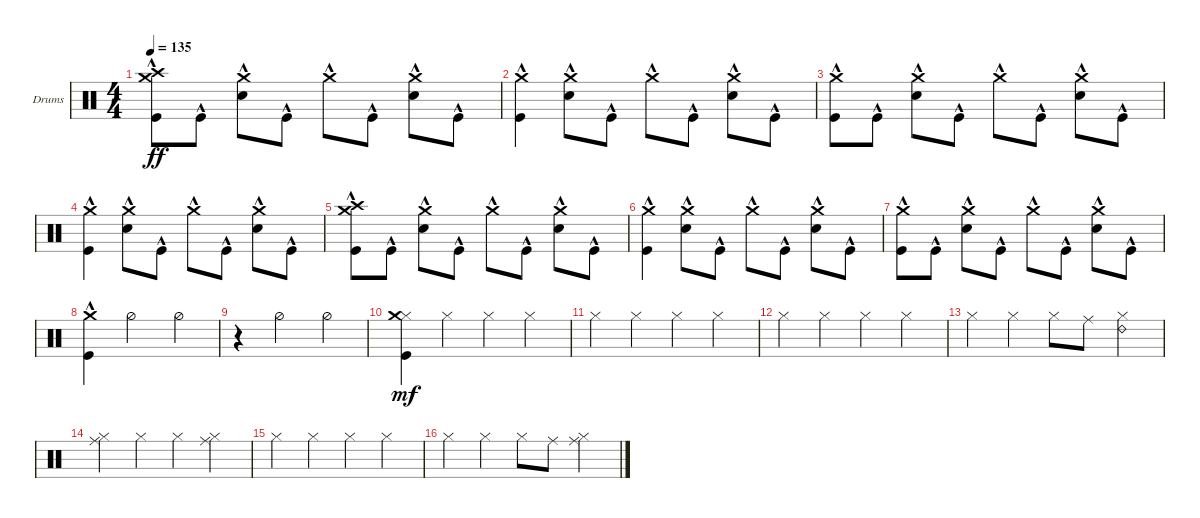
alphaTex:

\defaultSystemsLayout 4
\bracketExtendMode groupsimilarinstruments
\firstSystemTrackNameOrientation horizontal
\otherSystemsTrackNameOrientation horizontal
\track ("Drumkit" "Drums") {instrument percussion}
\staff {score}
\articulation defaults
\ts (4 4)
\tempo 135
\clef neutral
\ks c
("Crash medium (hit)"{hac} "Crash high (hit)"{hac} "Kick (hit)"{hac}).8{dy ff} "Kick (hit)"{hac}.8 ("Crash medium (hit)"{hac} "Snare (hit) 2"{hac}).8 "Kick (hit)"{hac}.8 "Crash medium (hit)"{hac}.8 "Kick (hit)"{hac}.8 ("Crash medium (hit)"{hac} "Snare (hit) 2"{hac}).8 "Kick (hit)"{hac}.8 |
("Crash medium (hit)"{hac} "Kick (hit)"{hac}).4 ("Crash medium (hit)"{hac} "Snare (hit) 2"{hac}).8 "Kick (hit)"{hac}.8 "Crash medium (hit)"{hac}.8 "Kick (hit)"{hac}.8 ("Crash medium (hit)"{hac} "Snare (hit) 2"{hac}).8 "Kick (hit)"{hac}.8 |
("Crash medium (hit)"{hac} "Kick (hit)"{hac}).8 "Kick (hit)"{hac}.8 ("Crash medium (hit)"{hac} "Snare (hit) 2"{hac}).8 "Kick (hit)"{hac}.8 "Crash medium (hit)"{hac}.8 "Kick (hit)"{hac}.8 ("Crash medium (hit)"{hac} "Snare (hit) 2"{hac}).8 "Kick (hit)"{hac}.8 |
("Crash medium (hit)"{hac} "Kick (hit)"{hac}).4 ("Crash medium (hit)"{hac} "Snare (hit) 2"{hac}).8 "Kick (hit)"{hac}.8 "Crash medium (hit)"{hac}.8 "Kick (hit)"{hac}.8 ("Crash medium (hit)"{hac} "Snare (hit) 2"{hac}).8 "Kick (hit)"{hac}.8 |
("Crash medium (hit)"{hac} "Crash high (hit)"{hac} "Kick (hit)"{hac}).8 "Kick (hit)"{hac}.8 ("Crash medium (hit)"{hac} "Snare (hit) 2"{hac}).8 "Kick (hit)"{hac}.8 "Crash medium (hit)"{hac}.8 "Kick (hit)"{hac}.8 ("Crash medium (hit)"{hac} "Snare (hit) 2"{hac}).8 "Kick (hit)"{hac}.8 |
("Crash medium (hit)"{hac} "Kick (hit)"{hac}).4 ("Crash medium (hit)"{hac} "Snare (hit) 2"{hac}).8 "Kick (hit)"{hac}.8 "Crash medium (hit)"{hac}.8 "Kick (hit)"{hac}.8 ("Crash medium (hit)"{hac} "Snare (hit) 2"{hac}).8 "Kick (hit)"{hac}.8 |
("Crash medium (hit)"{hac} "Kick (hit)"{hac}).8 "Kick (hit)"{hac}.8 ("Crash medium (hit)"{hac} "Snare (hit) 2"{hac}).8 "Kick (hit)"{hac}.8 "Crash medium (hit)"{hac}.8 "Kick (hit)"{hac}.8 ("Crash medium (hit)"{hac} "Snare (hit) 2"{hac}).8 "Kick (hit)"{hac}.8 |
("Crash medium (hit)"{hac} "Kick (hit)"{hac}).4 "Hi-Hat (half)".2 "Hi-Hat (half)".4 |
r.4 "Hi-Hat (half)".2 "Hi-Hat (half)".4 |
("Hi-Hat (closed)" "Kick (hit)" "Crash medium (hit)").4{dy mf} "Hi-Hat (closed)".4 "Hi-Hat (closed)".4 "Hi-Hat (closed)".4 |
"Hi-Hat (closed)".4 "Hi-Hat (closed)".4 "Hi-Hat (closed)".4 "Hi-Hat (closed)".4 |
"Hi-Hat (closed)".4 "Hi-Hat (closed)".4 "Hi-Hat (closed)".4 "Hi-Hat (closed)".4 |
"Hi-Hat (closed)".4 "Hi-Hat (closed)".4 "Hi-Hat (closed)".8 "Ride (middle)".8 ("Hi-Hat (closed)" "Ride (bell) 2").4 |
("Hi-Hat (closed)" "Ride (middle)").4 "Hi-Hat (closed)".4 "Hi-Hat (closed)".4 ("Hi-Hat (closed)" "Ride (middle)").4 |
"Hi-Hat (closed)".4 "Hi-Hat (closed)".4 "Hi-Hat (closed)".4 "Hi-Hat (closed)".4 |
"Hi-Hat (closed)".4 "Hi-Hat (closed)".4 "Hi-Hat (closed)".8 "Ride (middle)".8 ("Hi-Hat (closed)" "Ride (middle)").4
